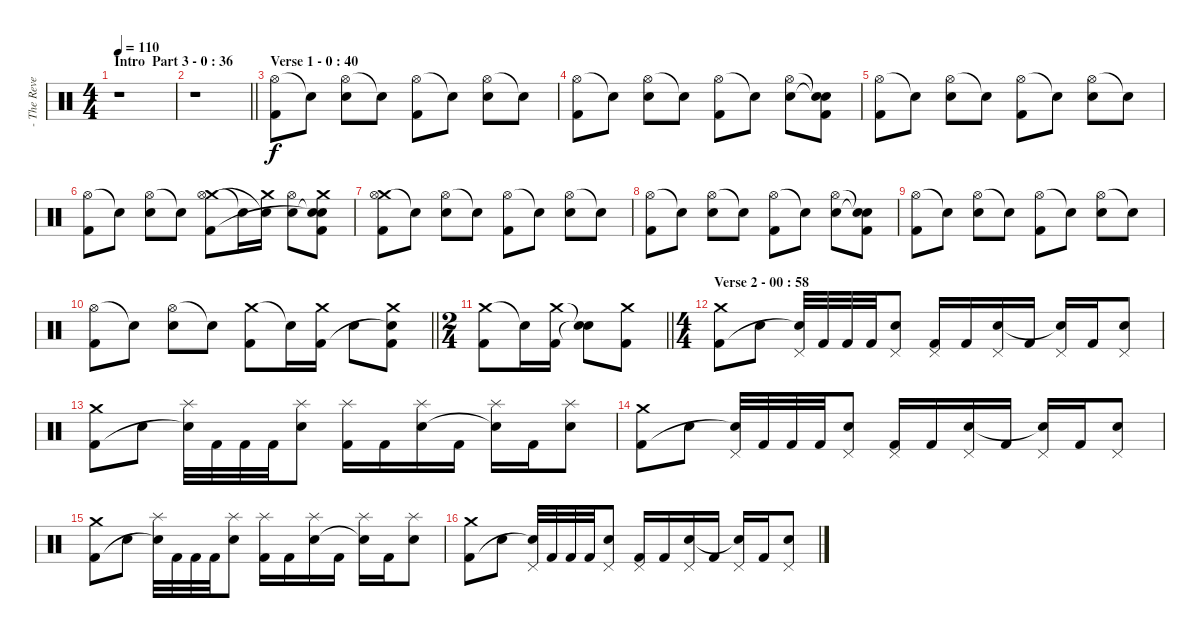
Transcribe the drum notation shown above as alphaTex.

\track ("- The Reverend - Drums" "- The Reve") {instrument percussion}
\staff {score}
\articulation defaults
\ts (4 4)
\section ("" "Intro  Part 3 - 0 : 36")
\tempo 110
\clef neutral
\ks c
r.1{dy f} |
\barLineRight lightlight
r.1 |
\section ("" "Verse 1 - 0 : 40")
("Hi-Hat (open)" "Kick (hit) 2").8 "Snare (hit)"{t}.8 ("Hi-Hat (open)" "Snare (hit) 2").8 "Snare (hit)"{t}.8 ("Hi-Hat (open)" "Kick (hit) 2").8 "Snare (hit)"{t}.8 ("Hi-Hat (open)" "Snare (hit) 2").8 "Snare (hit)"{t}.8 |
("Hi-Hat (open)" "Kick (hit) 2").8 "Snare (hit)"{t}.8 ("Hi-Hat (open)" "Snare (hit) 2").8 "Snare (hit)"{t}.8 ("Hi-Hat (open)" "Kick (hit) 2").8 "Snare (hit)"{t}.8 ("Hi-Hat (open)" "Snare (hit) 2").8 ("Snare (hit)"{t} "Snare (hit)"{t} "Kick (hit) 2").8 |
("Hi-Hat (open)" "Kick (hit) 2").8 "Snare (hit)"{t}.8 ("Hi-Hat (open)" "Snare (hit) 2").8 "Snare (hit)"{t}.8 ("Hi-Hat (open)" "Kick (hit) 2").8 "Snare (hit)"{t}.8 ("Hi-Hat (open)" "Snare (hit) 2").8 "Snare (hit)"{t}.8 |
("Hi-Hat (open)" "Kick (hit) 2").8 "Snare (hit)"{t}.8 ("Hi-Hat (open)" "Snare (hit) 2").8 "Snare (hit)"{t}.8 ("Crash medium (hit)" "Hi-Hat (open)" "Kick (hit) 2").8 "Snare (hit)"{t}.16 ("Crash medium (hit)" "Snare (hit)"{t}).16 ("Hi-Hat (open)" "Snare (hit) 2").8 ("Crash medium (hit)" "Snare (hit)"{t} "Snare (hit)"{t} "Kick (hit) 2").8 |
("Crash medium (hit)" "Hi-Hat (open)" "Kick (hit) 2").8 "Snare (hit)"{t}.8 ("Hi-Hat (open)" "Snare (hit) 2").8 "Snare (hit)"{t}.8 ("Hi-Hat (open)" "Kick (hit) 2").8 "Snare (hit)"{t}.8 ("Hi-Hat (open)" "Snare (hit) 2").8 "Snare (hit)"{t}.8 |
("Hi-Hat (open)" "Kick (hit) 2").8 "Snare (hit)"{t}.8 ("Hi-Hat (open)" "Snare (hit) 2").8 "Snare (hit)"{t}.8 ("Hi-Hat (open)" "Kick (hit) 2").8 "Snare (hit)"{t}.8 ("Hi-Hat (open)" "Snare (hit) 2").8 ("Snare (hit)"{t} "Snare (hit)"{t} "Kick (hit) 2").8 |
("Hi-Hat (open)" "Kick (hit) 2").8 "Snare (hit)"{t}.8 ("Hi-Hat (open)" "Snare (hit) 2").8 "Snare (hit)"{t}.8 ("Hi-Hat (open)" "Kick (hit) 2").8 "Snare (hit)"{t}.8 ("Hi-Hat (open)" "Snare (hit) 2").8 "Snare (hit)"{t}.8 |
\barLineRight lightlight
("Hi-Hat (open)" "Kick (hit) 2").8 "Snare (hit)"{t}.8 ("Hi-Hat (open)" "Snare (hit) 2").8 "Snare (hit)"{t}.8 ("Crash medium (hit)" "Kick (hit) 2").8 "Snare (hit)"{t}.16 ("Crash medium (hit)" "Kick (hit) 2").16 "Snare (hit) 2".8 ("Crash medium (hit)" "Snare (hit)"{t} "Kick (hit) 2").8 |
\ts (2 4)
\barLineRight lightlight
("Crash medium (hit)" "Kick (hit) 2").8 "Snare (hit)"{t}.16 ("Crash medium (hit)" "Kick (hit) 2").16 ("Snare (hit)"{t} "Snare (hit)"{t}).8 ("Crash medium (hit)" "Kick (hit) 2").8 |
\ts (4 4)
\section ("" "Verse 2 - 00 : 58")
("Crash medium (hit)" "Kick (hit) 2").8 "Snare (hit) 2".8 ("Pedal Hi-Hat (hit)" "Snare (hit)"{t}).32 "Kick (hit) 2".32 "Kick (hit) 2".32 "Kick (hit) 2".32 ("Pedal Hi-Hat (hit)" "Snare (hit) 2").8 ("Pedal Hi-Hat (hit)" "Kick (hit) 2").16 "Kick (hit) 2".16 ("Pedal Hi-Hat (hit)" "Snare (hit) 2").16 "Kick (hit) 2".16 ("Pedal Hi-Hat (hit)" "Snare (hit)"{t}).16 "Kick (hit) 2".16 ("Pedal Hi-Hat (hit)" "Snare (hit) 2").8 |
("Crash medium (hit)" "Kick (hit) 2").8 "Snare (hit) 2".8 ("Splash (hit)" "Snare (hit)"{t}).32 "Kick (hit) 2".32 "Kick (hit) 2".32 "Kick (hit) 2".32 ("Splash (hit)" "Snare (hit) 2").8 ("Splash (hit)" "Kick (hit) 2").16 "Kick (hit) 2".16 ("Splash (hit)" "Snare (hit) 2").16 "Kick (hit) 2".16 ("Splash (hit)" "Snare (hit)"{t}).16 "Kick (hit) 2".16 ("Splash (hit)" "Snare (hit) 2").8 |
("Crash medium (hit)" "Kick (hit) 2").8 "Snare (hit) 2".8 ("Pedal Hi-Hat (hit)" "Snare (hit)"{t}).32 "Kick (hit) 2".32 "Kick (hit) 2".32 "Kick (hit) 2".32 ("Pedal Hi-Hat (hit)" "Snare (hit) 2").8 ("Pedal Hi-Hat (hit)" "Kick (hit) 2").16 "Kick (hit) 2".16 ("Pedal Hi-Hat (hit)" "Snare (hit) 2").16 "Kick (hit) 2".16 ("Pedal Hi-Hat (hit)" "Snare (hit)"{t}).16 "Kick (hit) 2".16 ("Pedal Hi-Hat (hit)" "Snare (hit) 2").8 |
("Crash medium (hit)" "Kick (hit) 2").8 "Snare (hit) 2".8 ("Splash (hit)" "Snare (hit)"{t}).32 "Kick (hit) 2".32 "Kick (hit) 2".32 "Kick (hit) 2".32 ("Splash (hit)" "Snare (hit) 2").8 ("Splash (hit)" "Kick (hit) 2").16 "Kick (hit) 2".16 ("Splash (hit)" "Snare (hit) 2").16 "Kick (hit) 2".16 ("Splash (hit)" "Snare (hit)"{t}).16 "Kick (hit) 2".16 ("Splash (hit)" "Snare (hit) 2").8 |
("Crash medium (hit)" "Kick (hit) 2").8 "Snare (hit) 2".8 ("Pedal Hi-Hat (hit)" "Snare (hit)"{t}).32 "Kick (hit) 2".32 "Kick (hit) 2".32 "Kick (hit) 2".32 ("Pedal Hi-Hat (hit)" "Snare (hit) 2").8 ("Pedal Hi-Hat (hit)" "Kick (hit) 2").16 "Kick (hit) 2".16 ("Pedal Hi-Hat (hit)" "Snare (hit) 2").16 "Kick (hit) 2".16 ("Pedal Hi-Hat (hit)" "Snare (hit)"{t}).16 "Kick (hit) 2".16 ("Pedal Hi-Hat (hit)" "Snare (hit) 2").8
